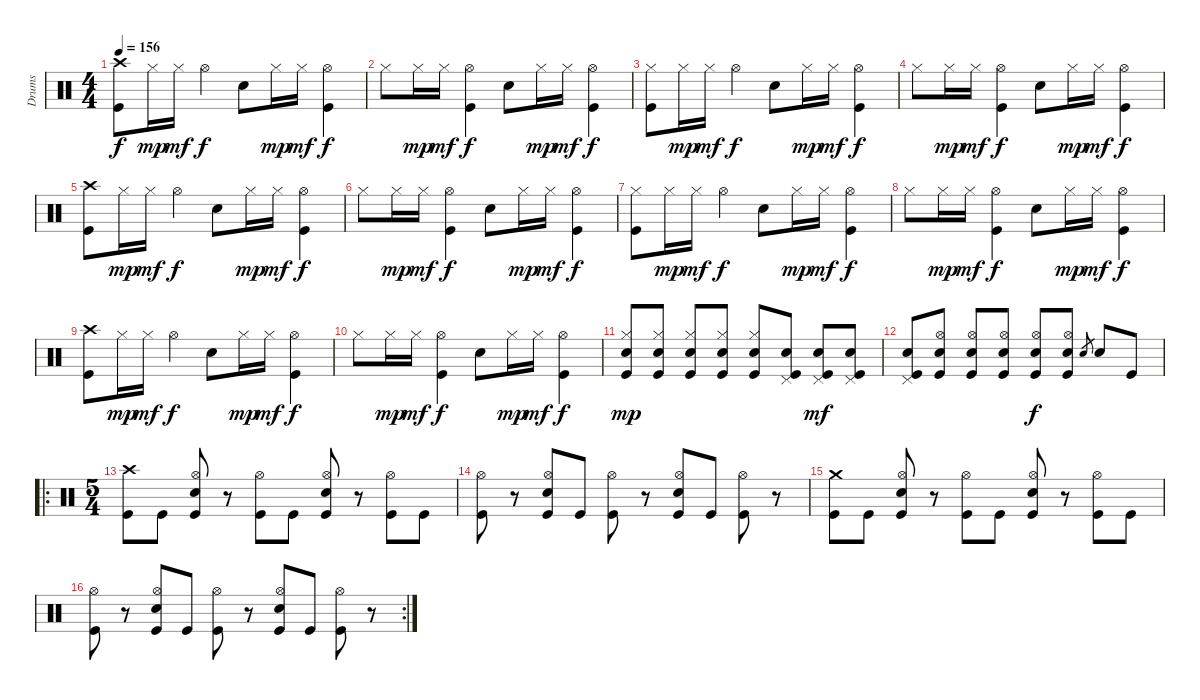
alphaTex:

\track ("Drums" "Drums") {instrument percussion}
\staff {score}
\articulation defaults
\ts (4 4)
\tempo 156
\clef neutral
\ks c
("Crash high (hit)" "Kick (hit)").8{dy f} "Hi-Hat (closed)".16{dy mp} "Hi-Hat (closed)".16{dy mf} "Hi-Hat (open)".4{dy f} "Electric Snare (hit)".8 "Hi-Hat (closed)".16{dy mp} "Hi-Hat (closed)".16{dy mf} ("Hi-Hat (open)" "Kick (hit)").4{dy f} |
"Hi-Hat (closed)".8 "Hi-Hat (closed)".16{dy mp} "Hi-Hat (closed)".16{dy mf} ("Hi-Hat (open)" "Kick (hit)").4{dy f} "Electric Snare (hit)".8 "Hi-Hat (closed)".16{dy mp} "Hi-Hat (closed)".16{dy mf} ("Hi-Hat (open)" "Kick (hit)").4{dy f} |
("Hi-Hat (closed)" "Kick (hit)").8 "Hi-Hat (closed)".16{dy mp} "Hi-Hat (closed)".16{dy mf} "Hi-Hat (open)".4{dy f} "Electric Snare (hit)".8 "Hi-Hat (closed)".16{dy mp} "Hi-Hat (closed)".16{dy mf} ("Hi-Hat (open)" "Kick (hit)").4{dy f} |
"Hi-Hat (closed)".8 "Hi-Hat (closed)".16{dy mp} "Hi-Hat (closed)".16{dy mf} ("Hi-Hat (open)" "Kick (hit)").4{dy f} "Electric Snare (hit)".8 "Hi-Hat (closed)".16{dy mp} "Hi-Hat (closed)".16{dy mf} ("Hi-Hat (open)" "Kick (hit)").4{dy f} |
("Crash high (hit)" "Kick (hit)").8 "Hi-Hat (closed)".16{dy mp} "Hi-Hat (closed)".16{dy mf} "Hi-Hat (open)".4{dy f} "Electric Snare (hit)".8 "Hi-Hat (closed)".16{dy mp} "Hi-Hat (closed)".16{dy mf} ("Hi-Hat (open)" "Kick (hit)").4{dy f} |
"Hi-Hat (closed)".8 "Hi-Hat (closed)".16{dy mp} "Hi-Hat (closed)".16{dy mf} ("Hi-Hat (open)" "Kick (hit)").4{dy f} "Electric Snare (hit)".8 "Hi-Hat (closed)".16{dy mp} "Hi-Hat (closed)".16{dy mf} ("Hi-Hat (open)" "Kick (hit)").4{dy f} |
("Hi-Hat (closed)" "Kick (hit)").8 "Hi-Hat (closed)".16{dy mp} "Hi-Hat (closed)".16{dy mf} "Hi-Hat (open)".4{dy f} "Electric Snare (hit)".8 "Hi-Hat (closed)".16{dy mp} "Hi-Hat (closed)".16{dy mf} ("Hi-Hat (open)" "Kick (hit)").4{dy f} |
"Hi-Hat (closed)".8 "Hi-Hat (closed)".16{dy mp} "Hi-Hat (closed)".16{dy mf} ("Hi-Hat (open)" "Kick (hit)").4{dy f} "Electric Snare (hit)".8 "Hi-Hat (closed)".16{dy mp} "Hi-Hat (closed)".16{dy mf} ("Hi-Hat (open)" "Kick (hit)").4{dy f} |
("Crash high (hit)" "Kick (hit)").8 "Hi-Hat (closed)".16{dy mp} "Hi-Hat (closed)".16{dy mf} "Hi-Hat (open)".4{dy f} "Electric Snare (hit)".8 "Hi-Hat (closed)".16{dy mp} "Hi-Hat (closed)".16{dy mf} ("Hi-Hat (open)" "Kick (hit)").4{dy f} |
"Hi-Hat (closed)".8 "Hi-Hat (closed)".16{dy mp} "Hi-Hat (closed)".16{dy mf} ("Hi-Hat (open)" "Kick (hit)").4{dy f} "Electric Snare (hit)".8 "Hi-Hat (closed)".16{dy mp} "Hi-Hat (closed)".16{dy mf} ("Hi-Hat (open)" "Kick (hit)").4{dy f} |
("Hi-Hat (closed)" "Electric Snare (hit)" "Kick (hit)").8{dy mp} ("Hi-Hat (closed)" "Electric Snare (hit)" "Kick (hit)").8 ("Hi-Hat (closed)" "Electric Snare (hit)" "Kick (hit)").8 ("Hi-Hat (closed)" "Electric Snare (hit)" "Kick (hit)").8 ("Hi-Hat (closed)" "Electric Snare (hit)" "Kick (hit)").8 ("Pedal Hi-Hat (hit)" "Electric Snare (hit)" "Kick (hit)").8 ("Pedal Hi-Hat (hit)" "Electric Snare (hit)" "Kick (hit)").8{dy mf} ("Pedal Hi-Hat (hit)" "Electric Snare (hit)" "Kick (hit)").8 |
("Pedal Hi-Hat (hit)" "Electric Snare (hit)" "Kick (hit)").8 ("Hi-Hat (open)" "Electric Snare (hit)" "Kick (hit)").8 ("Hi-Hat (open)" "Electric Snare (hit)" "Kick (hit)").8 ("Hi-Hat (open)" "Electric Snare (hit)" "Kick (hit)").8 ("Hi-Hat (open)" "Electric Snare (hit)" "Kick (hit)").8{dy f} ("Hi-Hat (open)" "Electric Snare (hit)" "Kick (hit)").8 "Electric Snare (hit)".8{gr} "Electric Snare (hit)".8 "Kick (hit)".8 |
\ro
\ts (5 4)
("Crash high (hit)" "Kick (hit)").8 "Kick (hit)".8 ("Hi-Hat (open)" "Electric Snare (hit)" "Kick (hit)").8 r.8 ("Hi-Hat (open)" "Kick (hit)").8 "Kick (hit)".8 ("Hi-Hat (open)" "Electric Snare (hit)" "Kick (hit)").8 r.8 ("Hi-Hat (open)" "Kick (hit)").8 "Kick (hit)".8 |
("Hi-Hat (open)" "Kick (hit)").8 r.8 ("Hi-Hat (open)" "Electric Snare (hit)" "Kick (hit)").8 "Kick (hit)".8 ("Hi-Hat (open)" "Kick (hit)").8 r.8 ("Hi-Hat (open)" "Electric Snare (hit)" "Kick (hit)").8 "Kick (hit)".8 ("Hi-Hat (open)" "Kick (hit)").8 r.8 |
("Crash medium (hit)" "Kick (hit)").8 "Kick (hit)".8 ("Hi-Hat (open)" "Electric Snare (hit)" "Kick (hit)").8 r.8 ("Hi-Hat (open)" "Kick (hit)").8 "Kick (hit)".8 ("Hi-Hat (open)" "Electric Snare (hit)" "Kick (hit)").8 r.8 ("Hi-Hat (open)" "Kick (hit)").8 "Kick (hit)".8 |
\rc 2
("Hi-Hat (open)" "Kick (hit)").8 r.8 ("Hi-Hat (open)" "Electric Snare (hit)" "Kick (hit)").8 "Kick (hit)".8 ("Hi-Hat (open)" "Kick (hit)").8 r.8 ("Hi-Hat (open)" "Electric Snare (hit)" "Kick (hit)").8 "Kick (hit)".8 ("Hi-Hat (open)" "Kick (hit)").8 r.8
